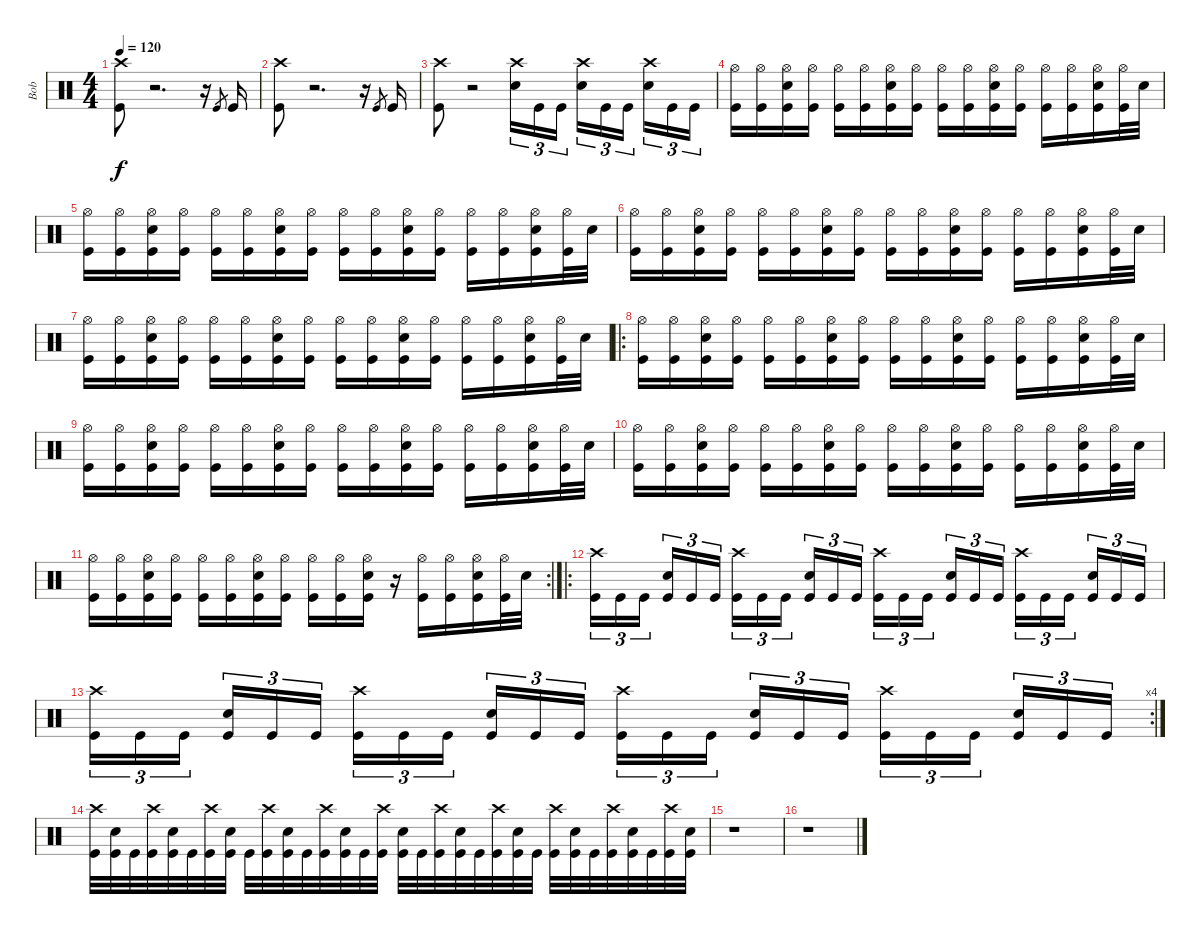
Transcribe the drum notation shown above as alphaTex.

\track ("Bob" "Bob") {instrument percussion}
\staff {score}
\articulation defaults
\ts (4 4)
\tempo 120
\clef neutral
\ks c
("Crash high (hit)" "Kick (hit)").8{dy f} r.2{d} r.16 "Kick (hit)".8{gr} "Kick (hit)".16 |
("Crash high (hit)" "Kick (hit)").8 r.2{d} r.16 "Kick (hit)".8{gr} "Kick (hit)".16 |
("Crash high (hit)" "Kick (hit)").8 r.2 ("Crash high (hit)" "Snare (hit) 2").16{tu (3 2)} "Kick (hit)".16{tu (3 2)} "Kick (hit)".16{tu (3 2)} ("Crash high (hit)" "Snare (hit) 2").16{tu (3 2)} "Kick (hit)".16{tu (3 2)} "Kick (hit)".16{tu (3 2)} ("Crash high (hit)" "Snare (hit) 2").16{tu (3 2)} "Kick (hit)".16{tu (3 2)} "Kick (hit)".16{tu (3 2)} |
("Hi-Hat (open)" "Kick (hit)").16 ("Hi-Hat (open)" "Kick (hit)").16 ("Hi-Hat (open)" "Snare (hit) 2" "Kick (hit)").16 ("Hi-Hat (open)" "Kick (hit)").16 ("Hi-Hat (open)" "Kick (hit)").16 ("Hi-Hat (open)" "Kick (hit)").16 ("Hi-Hat (open)" "Snare (hit) 2" "Kick (hit)").16 ("Hi-Hat (open)" "Kick (hit)").16 ("Hi-Hat (open)" "Kick (hit)").16 ("Hi-Hat (open)" "Kick (hit)").16 ("Hi-Hat (open)" "Snare (hit) 2" "Kick (hit)").16 ("Hi-Hat (open)" "Kick (hit)").16 ("Hi-Hat (open)" "Kick (hit)").16 ("Hi-Hat (open)" "Kick (hit)").16 ("Hi-Hat (open)" "Snare (hit) 2" "Kick (hit)").16 ("Hi-Hat (open)" "Kick (hit)").32 "Snare (hit) 2".32 |
("Hi-Hat (open)" "Kick (hit)").16 ("Hi-Hat (open)" "Kick (hit)").16 ("Hi-Hat (open)" "Snare (hit) 2" "Kick (hit)").16 ("Hi-Hat (open)" "Kick (hit)").16 ("Hi-Hat (open)" "Kick (hit)").16 ("Hi-Hat (open)" "Kick (hit)").16 ("Hi-Hat (open)" "Snare (hit) 2" "Kick (hit)").16 ("Hi-Hat (open)" "Kick (hit)").16 ("Hi-Hat (open)" "Kick (hit)").16 ("Hi-Hat (open)" "Kick (hit)").16 ("Hi-Hat (open)" "Snare (hit) 2" "Kick (hit)").16 ("Hi-Hat (open)" "Kick (hit)").16 ("Hi-Hat (open)" "Kick (hit)").16 ("Hi-Hat (open)" "Kick (hit)").16 ("Hi-Hat (open)" "Snare (hit) 2" "Kick (hit)").16 ("Hi-Hat (open)" "Kick (hit)").32 "Snare (hit) 2".32 |
("Hi-Hat (open)" "Kick (hit)").16 ("Hi-Hat (open)" "Kick (hit)").16 ("Hi-Hat (open)" "Snare (hit) 2" "Kick (hit)").16 ("Hi-Hat (open)" "Kick (hit)").16 ("Hi-Hat (open)" "Kick (hit)").16 ("Hi-Hat (open)" "Kick (hit)").16 ("Hi-Hat (open)" "Snare (hit) 2" "Kick (hit)").16 ("Hi-Hat (open)" "Kick (hit)").16 ("Hi-Hat (open)" "Kick (hit)").16 ("Hi-Hat (open)" "Kick (hit)").16 ("Hi-Hat (open)" "Snare (hit) 2" "Kick (hit)").16 ("Hi-Hat (open)" "Kick (hit)").16 ("Hi-Hat (open)" "Kick (hit)").16 ("Hi-Hat (open)" "Kick (hit)").16 ("Hi-Hat (open)" "Snare (hit) 2" "Kick (hit)").16 ("Hi-Hat (open)" "Kick (hit)").32 "Snare (hit) 2".32 |
("Hi-Hat (open)" "Kick (hit)").16 ("Hi-Hat (open)" "Kick (hit)").16 ("Hi-Hat (open)" "Snare (hit) 2" "Kick (hit)").16 ("Hi-Hat (open)" "Kick (hit)").16 ("Hi-Hat (open)" "Kick (hit)").16 ("Hi-Hat (open)" "Kick (hit)").16 ("Hi-Hat (open)" "Snare (hit) 2" "Kick (hit)").16 ("Hi-Hat (open)" "Kick (hit)").16 ("Hi-Hat (open)" "Kick (hit)").16 ("Hi-Hat (open)" "Kick (hit)").16 ("Hi-Hat (open)" "Snare (hit) 2" "Kick (hit)").16 ("Hi-Hat (open)" "Kick (hit)").16 ("Hi-Hat (open)" "Kick (hit)").16 ("Hi-Hat (open)" "Kick (hit)").16 ("Hi-Hat (open)" "Snare (hit) 2" "Kick (hit)").16 ("Hi-Hat (open)" "Kick (hit)").32 "Snare (hit) 2".32 |
\ro
("Hi-Hat (open)" "Kick (hit)").16 ("Hi-Hat (open)" "Kick (hit)").16 ("Hi-Hat (open)" "Snare (hit) 2" "Kick (hit)").16 ("Hi-Hat (open)" "Kick (hit)").16 ("Hi-Hat (open)" "Kick (hit)").16 ("Hi-Hat (open)" "Kick (hit)").16 ("Hi-Hat (open)" "Snare (hit) 2" "Kick (hit)").16 ("Hi-Hat (open)" "Kick (hit)").16 ("Hi-Hat (open)" "Kick (hit)").16 ("Hi-Hat (open)" "Kick (hit)").16 ("Hi-Hat (open)" "Snare (hit) 2" "Kick (hit)").16 ("Hi-Hat (open)" "Kick (hit)").16 ("Hi-Hat (open)" "Kick (hit)").16 ("Hi-Hat (open)" "Kick (hit)").16 ("Hi-Hat (open)" "Snare (hit) 2" "Kick (hit)").16 ("Hi-Hat (open)" "Kick (hit)").32 "Snare (hit) 2".32 |
("Hi-Hat (open)" "Kick (hit)").16 ("Hi-Hat (open)" "Kick (hit)").16 ("Hi-Hat (open)" "Snare (hit) 2" "Kick (hit)").16 ("Hi-Hat (open)" "Kick (hit)").16 ("Hi-Hat (open)" "Kick (hit)").16 ("Hi-Hat (open)" "Kick (hit)").16 ("Hi-Hat (open)" "Snare (hit) 2" "Kick (hit)").16 ("Hi-Hat (open)" "Kick (hit)").16 ("Hi-Hat (open)" "Kick (hit)").16 ("Hi-Hat (open)" "Kick (hit)").16 ("Hi-Hat (open)" "Snare (hit) 2" "Kick (hit)").16 ("Hi-Hat (open)" "Kick (hit)").16 ("Hi-Hat (open)" "Kick (hit)").16 ("Hi-Hat (open)" "Kick (hit)").16 ("Hi-Hat (open)" "Snare (hit) 2" "Kick (hit)").16 ("Hi-Hat (open)" "Kick (hit)").32 "Snare (hit) 2".32 |
("Hi-Hat (open)" "Kick (hit)").16 ("Hi-Hat (open)" "Kick (hit)").16 ("Hi-Hat (open)" "Snare (hit) 2" "Kick (hit)").16 ("Hi-Hat (open)" "Kick (hit)").16 ("Hi-Hat (open)" "Kick (hit)").16 ("Hi-Hat (open)" "Kick (hit)").16 ("Hi-Hat (open)" "Snare (hit) 2" "Kick (hit)").16 ("Hi-Hat (open)" "Kick (hit)").16 ("Hi-Hat (open)" "Kick (hit)").16 ("Hi-Hat (open)" "Kick (hit)").16 ("Hi-Hat (open)" "Snare (hit) 2" "Kick (hit)").16 ("Hi-Hat (open)" "Kick (hit)").16 ("Hi-Hat (open)" "Kick (hit)").16 ("Hi-Hat (open)" "Kick (hit)").16 ("Hi-Hat (open)" "Snare (hit) 2" "Kick (hit)").16 ("Hi-Hat (open)" "Kick (hit)").32 "Snare (hit) 2".32 |
\rc 2
("Hi-Hat (open)" "Kick (hit)").16 ("Hi-Hat (open)" "Kick (hit)").16 ("Hi-Hat (open)" "Snare (hit) 2" "Kick (hit)").16 ("Hi-Hat (open)" "Kick (hit)").16 ("Hi-Hat (open)" "Kick (hit)").16 ("Hi-Hat (open)" "Kick (hit)").16 ("Hi-Hat (open)" "Snare (hit) 2" "Kick (hit)").16 ("Hi-Hat (open)" "Kick (hit)").16 ("Hi-Hat (open)" "Kick (hit)").16 ("Hi-Hat (open)" "Kick (hit)").16 ("Hi-Hat (open)" "Snare (hit) 2" "Kick (hit)").16 r.16 ("Hi-Hat (open)" "Kick (hit)").16 ("Hi-Hat (open)" "Kick (hit)").16 ("Hi-Hat (open)" "Snare (hit) 2" "Kick (hit)").16 ("Hi-Hat (open)" "Kick (hit)").32 "Snare (hit) 2".32 |
\ro
("Crash high (hit)" "Kick (hit)").16{tu (3 2)} "Kick (hit)".16{tu (3 2)} "Kick (hit)".16{tu (3 2)} ("Snare (hit) 2" "Kick (hit)").16{tu (3 2)} "Kick (hit)".16{tu (3 2)} "Kick (hit)".16{tu (3 2)} ("Crash high (hit)" "Kick (hit)").16{tu (3 2)} "Kick (hit)".16{tu (3 2)} "Kick (hit)".16{tu (3 2)} ("Snare (hit) 2" "Kick (hit)").16{tu (3 2)} "Kick (hit)".16{tu (3 2)} "Kick (hit)".16{tu (3 2)} ("Crash high (hit)" "Kick (hit)").16{tu (3 2)} "Kick (hit)".16{tu (3 2)} "Kick (hit)".16{tu (3 2)} ("Snare (hit) 2" "Kick (hit)").16{tu (3 2)} "Kick (hit)".16{tu (3 2)} "Kick (hit)".16{tu (3 2)} ("Crash high (hit)" "Kick (hit)").16{tu (3 2)} "Kick (hit)".16{tu (3 2)} "Kick (hit)".16{tu (3 2)} ("Snare (hit) 2" "Kick (hit)").16{tu (3 2)} "Kick (hit)".16{tu (3 2)} "Kick (hit)".16{tu (3 2)} |
\rc 4
("Crash high (hit)" "Kick (hit)").16{tu (3 2)} "Kick (hit)".16{tu (3 2)} "Kick (hit)".16{tu (3 2)} ("Snare (hit) 2" "Kick (hit)").16{tu (3 2)} "Kick (hit)".16{tu (3 2)} "Kick (hit)".16{tu (3 2)} ("Crash high (hit)" "Kick (hit)").16{tu (3 2)} "Kick (hit)".16{tu (3 2)} "Kick (hit)".16{tu (3 2)} ("Snare (hit) 2" "Kick (hit)").16{tu (3 2)} "Kick (hit)".16{tu (3 2)} "Kick (hit)".16{tu (3 2)} ("Crash high (hit)" "Kick (hit)").16{tu (3 2)} "Kick (hit)".16{tu (3 2)} "Kick (hit)".16{tu (3 2)} ("Snare (hit) 2" "Kick (hit)").16{tu (3 2)} "Kick (hit)".16{tu (3 2)} "Kick (hit)".16{tu (3 2)} ("Crash high (hit)" "Kick (hit)").16{tu (3 2)} "Kick (hit)".16{tu (3 2)} "Kick (hit)".16{tu (3 2)} ("Snare (hit) 2" "Kick (hit)").16{tu (3 2)} "Kick (hit)".16{tu (3 2)} "Kick (hit)".16{tu (3 2)} |
("Crash high (hit)" "Kick (hit)").32 ("Snare (hit) 2" "Kick (hit)").32 "Kick (hit)".32 ("Crash high (hit)" "Kick (hit)").32 ("Snare (hit) 2" "Kick (hit)").32 "Kick (hit)".32 ("Crash high (hit)" "Kick (hit)").32 ("Snare (hit) 2" "Kick (hit)").32 "Kick (hit)".32 ("Crash high (hit)" "Kick (hit)").32 ("Snare (hit) 2" "Kick (hit)").32 "Kick (hit)".32 ("Crash high (hit)" "Kick (hit)").32 ("Snare (hit) 2" "Kick (hit)").32 "Kick (hit)".32 ("Crash high (hit)" "Kick (hit)").32 ("Snare (hit) 2" "Kick (hit)").32 "Kick (hit)".32 ("Crash high (hit)" "Kick (hit)").32 ("Snare (hit) 2" "Kick (hit)").32 "Kick (hit)".32 ("Crash high (hit)" "Kick (hit)").32 ("Snare (hit) 2" "Kick (hit)").32 "Kick (hit)".32 ("Crash high (hit)" "Kick (hit)").32 ("Snare (hit) 2" "Kick (hit)").32 "Kick (hit)".32 ("Crash high (hit)" "Kick (hit)").32 ("Snare (hit) 2" "Kick (hit)").32 "Kick (hit)".32 ("Crash high (hit)" "Kick (hit)").32 ("Snare (hit) 2" "Kick (hit)").32 |
r.1 |
r.1
